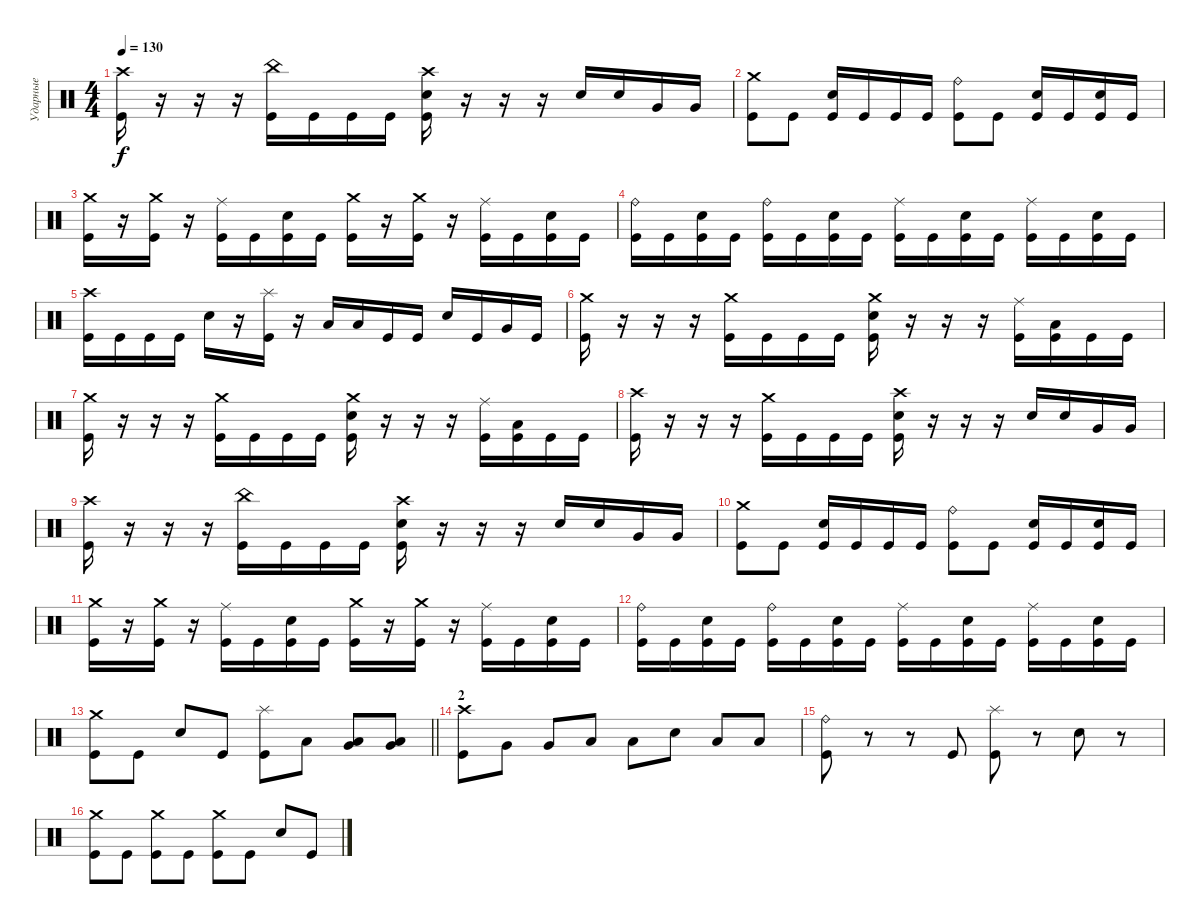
\track ("Ударные" "Ударные") {instrument percussion}
\staff {score}
\articulation defaults
\ts (4 4)
\tempo 130
\clef neutral
\ks c
("Crash high (hit)" "Kick (hit)").16{dy f} r.16 r.16 r.16 ("China (hit)" "Kick (hit)").16 "Kick (hit)".16 "Kick (hit)".16 "Kick (hit)".16 ("Crash high (hit)" "Electric Snare (hit)" "Kick (hit)").16 r.16 r.16 r.16 "Electric Snare (hit)".16 "Electric Snare (hit)".16 "Very Low Tom (hit)".16 "Very Low Tom (hit)".16 |
("Crash medium (hit)" "Kick (hit)").8 "Kick (hit)".8 ("Electric Snare (hit)" "Kick (hit)").16 "Kick (hit)".16 "Kick (hit)".16 "Kick (hit)".16 ("Ride (bell)" "Kick (hit)").8 "Kick (hit)".8 ("Electric Snare (hit)" "Kick (hit)").16 "Kick (hit)".16 ("Electric Snare (hit)" "Kick (hit)").16 "Kick (hit)".16 |
("Crash medium (hit)" "Kick (hit)").16 r.16 ("Crash medium (hit)" "Kick (hit)").16 r.16 ("Ride (middle)" "Kick (hit)").16 "Kick (hit)".16 ("Electric Snare (hit)" "Kick (hit)").16 "Kick (hit)".16 ("Crash medium (hit)" "Kick (hit)").16 r.16 ("Crash medium (hit)" "Kick (hit)").16 r.16 ("Ride (middle)" "Kick (hit)").16 "Kick (hit)".16 ("Electric Snare (hit)" "Kick (hit)").16 "Kick (hit)".16 |
("Ride (bell)" "Kick (hit)").16 "Kick (hit)".16 ("Electric Snare (hit)" "Kick (hit)").16 "Kick (hit)".16 ("Ride (bell)" "Kick (hit)").16 "Kick (hit)".16 ("Electric Snare (hit)" "Kick (hit)").16 "Kick (hit)".16 ("Ride (middle)" "Kick (hit)").16 "Kick (hit)".16 ("Electric Snare (hit)" "Kick (hit)").16 "Kick (hit)".16 ("Ride (middle)" "Kick (hit)").16 "Kick (hit)".16 ("Electric Snare (hit)" "Kick (hit)").16 "Kick (hit)".16 |
("Crash high (hit)" "Kick (hit)").16 "Kick (hit)".16 "Kick (hit)".16 "Kick (hit)".16 "Electric Snare (hit)".16 r.16 ("Splash (hit)" "Kick (hit)").16 r.16 "Low Tom (hit)".16 "Low Tom (hit)".16 "Kick (hit)".16 "Kick (hit)".16 "Electric Snare (hit)".16 "Kick (hit)".16 "Very Low Tom (hit)".16 "Kick (hit)".16 |
("Crash medium (hit)" "Kick (hit)").16 r.16 r.16 r.16 ("Crash medium (hit)" "Kick (hit)").16 "Kick (hit)".16 "Kick (hit)".16 "Kick (hit)".16 ("Crash medium (hit)" "Electric Snare (hit)" "Kick (hit)").16 r.16 r.16 r.16 ("Ride (middle)" "Kick (hit)").16 ("Low Tom (hit)" "Kick (hit)").16 "Kick (hit)".16 "Kick (hit)".16 |
("Crash medium (hit)" "Kick (hit)").16 r.16 r.16 r.16 ("Crash medium (hit)" "Kick (hit)").16 "Kick (hit)".16 "Kick (hit)".16 "Kick (hit)".16 ("Crash medium (hit)" "Electric Snare (hit)" "Kick (hit)").16 r.16 r.16 r.16 ("Ride (middle)" "Kick (hit)").16 ("Low Tom (hit)" "Kick (hit)").16 "Kick (hit)".16 "Kick (hit)".16 |
("Crash high (hit)" "Kick (hit)").16 r.16 r.16 r.16 ("Crash medium (hit)" "Kick (hit)").16 "Kick (hit)".16 "Kick (hit)".16 "Kick (hit)".16 ("Crash high (hit)" "Electric Snare (hit)" "Kick (hit)").16 r.16 r.16 r.16 "Electric Snare (hit)".16 "Electric Snare (hit)".16 "Very Low Tom (hit)".16 "Very Low Tom (hit)".16 |
("Crash high (hit)" "Kick (hit)").16 r.16 r.16 r.16 ("China (hit)" "Kick (hit)").16 "Kick (hit)".16 "Kick (hit)".16 "Kick (hit)".16 ("Crash high (hit)" "Electric Snare (hit)" "Kick (hit)").16 r.16 r.16 r.16 "Electric Snare (hit)".16 "Electric Snare (hit)".16 "Very Low Tom (hit)".16 "Very Low Tom (hit)".16 |
("Crash medium (hit)" "Kick (hit)").8 "Kick (hit)".8 ("Electric Snare (hit)" "Kick (hit)").16 "Kick (hit)".16 "Kick (hit)".16 "Kick (hit)".16 ("Ride (bell)" "Kick (hit)").8 "Kick (hit)".8 ("Electric Snare (hit)" "Kick (hit)").16 "Kick (hit)".16 ("Electric Snare (hit)" "Kick (hit)").16 "Kick (hit)".16 |
("Crash medium (hit)" "Kick (hit)").16 r.16 ("Crash medium (hit)" "Kick (hit)").16 r.16 ("Ride (middle)" "Kick (hit)").16 "Kick (hit)".16 ("Electric Snare (hit)" "Kick (hit)").16 "Kick (hit)".16 ("Crash medium (hit)" "Kick (hit)").16 r.16 ("Crash medium (hit)" "Kick (hit)").16 r.16 ("Ride (middle)" "Kick (hit)").16 "Kick (hit)".16 ("Electric Snare (hit)" "Kick (hit)").16 "Kick (hit)".16 |
("Ride (bell)" "Kick (hit)").16 "Kick (hit)".16 ("Electric Snare (hit)" "Kick (hit)").16 "Kick (hit)".16 ("Ride (bell)" "Kick (hit)").16 "Kick (hit)".16 ("Electric Snare (hit)" "Kick (hit)").16 "Kick (hit)".16 ("Ride (middle)" "Kick (hit)").16 "Kick (hit)".16 ("Electric Snare (hit)" "Kick (hit)").16 "Kick (hit)".16 ("Ride (middle)" "Kick (hit)").16 "Kick (hit)".16 ("Electric Snare (hit)" "Kick (hit)").16 "Kick (hit)".16 |
\barLineRight lightlight
("Crash medium (hit)" "Kick (hit)").8 "Kick (hit)".8 "Electric Snare (hit)".8 "Kick (hit)".8 ("Splash (hit)" "Kick (hit)").8 "Low Tom (hit)".8 ("Very Low Tom (hit)" "Low Floor Tom (hit)").8 ("Very Low Tom (hit)" "Low Floor Tom (hit)").8 |
\section ("" "2")
("Crash high (hit)" "Kick (hit)").8 "Very Low Tom (hit)".8 "Very Low Tom (hit)".8 "Low Tom (hit)".8 "Low Tom (hit)".8 "Electric Snare (hit)".8 "Low Tom (hit)".8 "Low Tom (hit)".8 |
("Ride (bell)" "Kick (hit)").8 r.8 r.8 "Kick (hit)".8 ("Splash (hit)" "Kick (hit)").8 r.8 "Electric Snare (hit)".8 r.8 |
("Crash medium (hit)" "Kick (hit)").8 "Kick (hit)".8 ("Crash medium (hit)" "Kick (hit)").8 "Kick (hit)".8 ("Crash medium (hit)" "Kick (hit)").8 "Kick (hit)".8 "Electric Snare (hit)".8 "Kick (hit)".8
